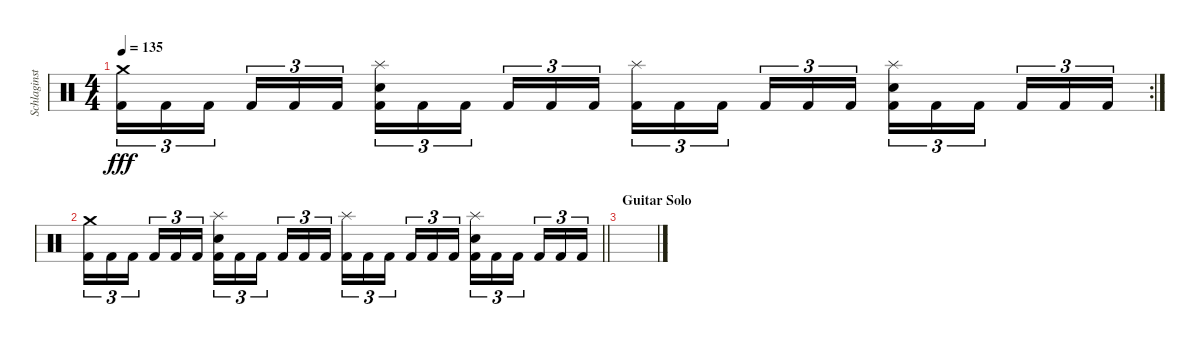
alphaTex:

\track ("Schlaginstrumente - Auswahl" "Schlaginst") {instrument percussion}
\staff {score}
\articulation defaults
\rc 2
\ts (4 4)
\tempo 135
\clef neutral
\ks c
("Kick (hit) 2" "Crash medium (hit)").16{tu (3 2) dy fff} "Kick (hit) 2".16{tu (3 2)} "Kick (hit) 2".16{tu (3 2) beam splitsecondary} "Kick (hit) 2".16{tu (3 2)} "Kick (hit) 2".16{tu (3 2)} "Kick (hit) 2".16{tu (3 2)} ("Kick (hit) 2" "Electric Snare (hit)" "Splash (hit)").16{tu (3 2)} "Kick (hit) 2".16{tu (3 2)} "Kick (hit) 2".16{tu (3 2) beam splitsecondary} "Kick (hit) 2".16{tu (3 2)} "Kick (hit) 2".16{tu (3 2)} "Kick (hit) 2".16{tu (3 2)} ("Kick (hit) 2" "Splash (hit)").16{tu (3 2)} "Kick (hit) 2".16{tu (3 2)} "Kick (hit) 2".16{tu (3 2) beam splitsecondary} "Kick (hit) 2".16{tu (3 2)} "Kick (hit) 2".16{tu (3 2)} "Kick (hit) 2".16{tu (3 2)} ("Kick (hit) 2" "Electric Snare (hit)" "Splash (hit)").16{tu (3 2)} "Kick (hit) 2".16{tu (3 2)} "Kick (hit) 2".16{tu (3 2) beam splitsecondary} "Kick (hit) 2".16{tu (3 2)} "Kick (hit) 2".16{tu (3 2)} "Kick (hit) 2".16{tu (3 2)} |
\barLineRight lightlight
("Kick (hit) 2" "Crash medium (hit)").16{tu (3 2)} "Kick (hit) 2".16{tu (3 2)} "Kick (hit) 2".16{tu (3 2) beam splitsecondary} "Kick (hit) 2".16{tu (3 2)} "Kick (hit) 2".16{tu (3 2)} "Kick (hit) 2".16{tu (3 2)} ("Kick (hit) 2" "Electric Snare (hit)" "Splash (hit)").16{tu (3 2)} "Kick (hit) 2".16{tu (3 2)} "Kick (hit) 2".16{tu (3 2) beam splitsecondary} "Kick (hit) 2".16{tu (3 2)} "Kick (hit) 2".16{tu (3 2)} "Kick (hit) 2".16{tu (3 2)} ("Kick (hit) 2" "Splash (hit)").16{tu (3 2)} "Kick (hit) 2".16{tu (3 2)} "Kick (hit) 2".16{tu (3 2) beam splitsecondary} "Kick (hit) 2".16{tu (3 2)} "Kick (hit) 2".16{tu (3 2)} "Kick (hit) 2".16{tu (3 2)} ("Kick (hit) 2" "Electric Snare (hit)" "Splash (hit)").16{tu (3 2)} "Kick (hit) 2".16{tu (3 2)} "Kick (hit) 2".16{tu (3 2) beam splitsecondary} "Kick (hit) 2".16{tu (3 2)} "Kick (hit) 2".16{tu (3 2)} "Kick (hit) 2".16{tu (3 2)} |
\section ("" "Guitar Solo")
